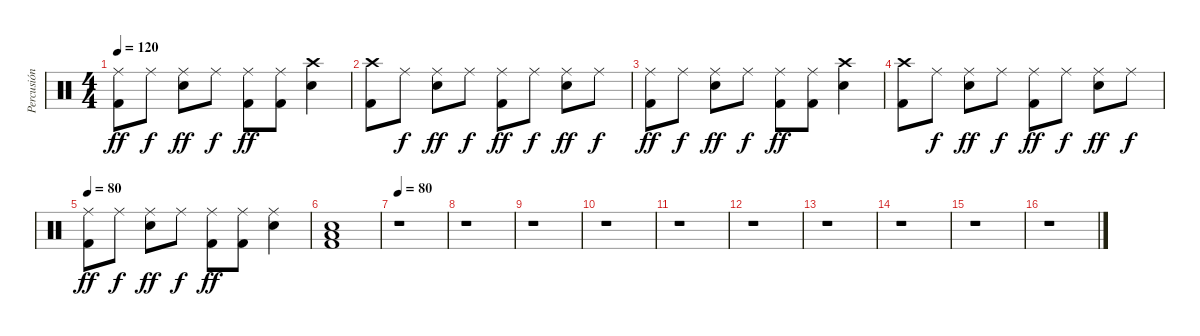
\track ("Percusión" "Percusión") {instrument percussion}
\staff {score}
\articulation defaults
\ts (4 4)
\tempo 120
\clef neutral
\ks c
("Ride (middle)" "Kick (hit) 2").8{dy ff} "Ride (middle)".8{dy f} ("Ride (middle)" "Snare (hit) 2").8{dy ff} "Ride (middle)".8{dy f} ("Ride (middle)" "Kick (hit) 2").8{dy ff} ("Ride (middle)" "Kick (hit) 2").8 ("Crash high (hit)" "Snare (hit) 2").4 |
("Crash high (hit)" "Kick (hit) 2").8 "Ride (middle)".8{dy f} ("Ride (middle)" "Snare (hit) 2").8{dy ff} "Ride (middle)".8{dy f} ("Ride (middle)" "Kick (hit) 2").8{dy ff} "Ride (middle)".8{dy f} ("Ride (middle)" "Snare (hit) 2").8{dy ff} "Ride (middle)".8{dy f} |
("Ride (middle)" "Kick (hit) 2").8{dy ff} "Ride (middle)".8{dy f} ("Ride (middle)" "Snare (hit) 2").8{dy ff} "Ride (middle)".8{dy f} ("Ride (middle)" "Kick (hit) 2").8{dy ff} ("Ride (middle)" "Kick (hit) 2").8 ("Crash high (hit)" "Snare (hit) 2").4 |
("Crash high (hit)" "Kick (hit) 2").8 "Ride (middle)".8{dy f} ("Ride (middle)" "Snare (hit) 2").8{dy ff} "Ride (middle)".8{dy f} ("Ride (middle)" "Kick (hit) 2").8{dy ff} "Ride (middle)".8{dy f} ("Ride (middle)" "Snare (hit) 2").8{dy ff} "Ride (middle)".8{dy f} |
\tempo 80
("Ride (middle)" "Kick (hit) 2").8{dy ff} "Ride (middle)".8{dy f} ("Ride (middle)" "Snare (hit) 2").8{dy ff} "Ride (middle)".8{dy f} ("Ride (middle)" "Kick (hit) 2").8{dy ff} ("Ride (middle)" "Kick (hit) 2").8 ("Ride (middle)" "Snare (hit) 2").4 |
("Low Floor Tom (hit)" "Snare (hit) 2" "Kick (hit) 2").1 |
\tempo 80
r.1 |
r.1 |
r.1 |
r.1 |
r.1 |
r.1 |
r.1 |
r.1 |
r.1 |
r.1
